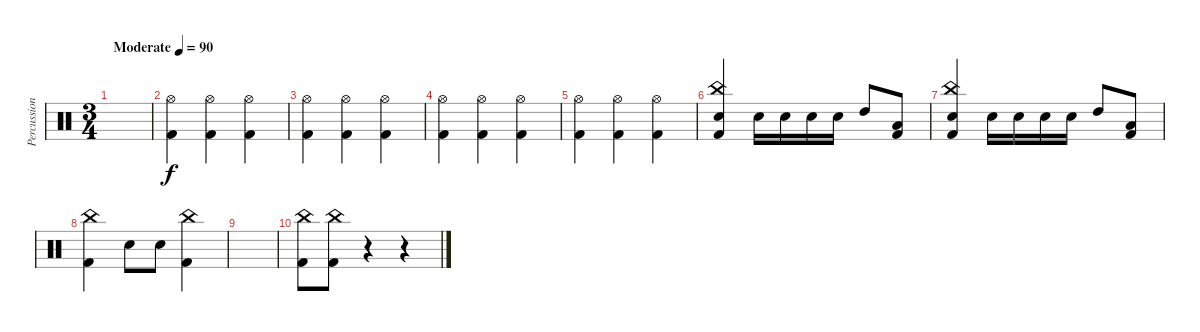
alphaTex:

\track ("Percussion" "Percussion") {instrument percussion}
\staff {score}
\articulation defaults
\ts (3 4)
\tempo (90 "Moderate")
\clef neutral
\ks c
|
("Hi-Hat (open)" "Kick (hit) 2").4 ("Hi-Hat (open)" "Kick (hit) 2").4 ("Hi-Hat (open)" "Kick (hit) 2").4 |
("Hi-Hat (open)" "Kick (hit) 2").4 ("Hi-Hat (open)" "Kick (hit) 2").4 ("Hi-Hat (open)" "Kick (hit) 2").4 |
("Hi-Hat (open)" "Kick (hit) 2").4 ("Hi-Hat (open)" "Kick (hit) 2").4 ("Hi-Hat (open)" "Kick (hit) 2").4 |
("Hi-Hat (open)" "Kick (hit) 2").4 ("Hi-Hat (open)" "Kick (hit) 2").4 ("Hi-Hat (open)" "Kick (hit) 2").4 |
("China (hit)" "Snare (hit) 2" "Kick (hit) 2").4 "Snare (hit) 2".16 "Snare (hit) 2".16 "Snare (hit) 2".16 "Snare (hit) 2".16 "High Tom (hit)".8 ("Low Tom (hit)" "Kick (hit) 2").8 |
("China (hit)" "Snare (hit) 2" "Kick (hit) 2").4 "Snare (hit) 2".16 "Snare (hit) 2".16 "Snare (hit) 2".16 "Snare (hit) 2".16 "High Tom (hit)".8 ("Low Tom (hit)" "Kick (hit) 2").8 |
("China (hit)" "Kick (hit) 2").4 "Snare (hit) 2".8 "Snare (hit) 2".8 ("China (hit)" "Kick (hit) 2").4 |
|
("China (hit)" "Kick (hit) 2").8 ("China (hit)" "Kick (hit) 2").8 r.4 r.4
